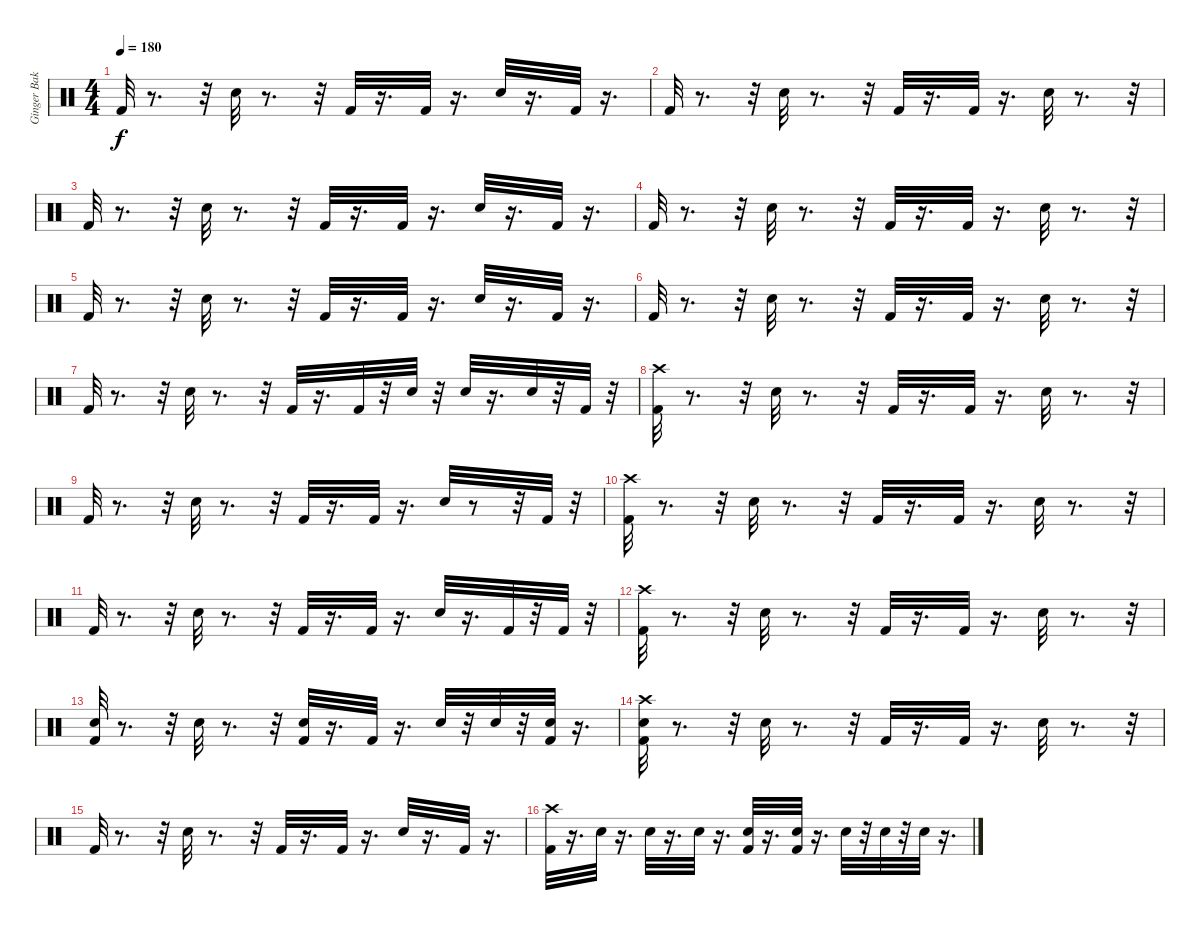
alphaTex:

\track ("Ginger Baker" "Ginger Bak") {instrument percussion}
\staff {score}
\articulation defaults
\ts (4 4)
\tempo 180
\clef neutral
\ks c "Kick (hit) 2".32{dy f}
r.8{d} r.32 "Snare (hit) 2".32 r.8{d} r.32 "Kick (hit) 2".32 r.16{d} "Kick (hit) 2".32 r.16{d} "Snare (hit) 2".32 r.16{d} "Kick (hit) 2".32 r.16{d} |
"Kick (hit) 2".32 r.8{d} r.32 "Snare (hit) 2".32 r.8{d} r.32 "Kick (hit) 2".32 r.16{d} "Kick (hit) 2".32 r.16{d} "Snare (hit) 2".32 r.8{d} r.32 |
"Kick (hit) 2".32 r.8{d} r.32 "Snare (hit) 2".32 r.8{d} r.32 "Kick (hit) 2".32 r.16{d} "Kick (hit) 2".32 r.16{d} "Snare (hit) 2".32 r.16{d} "Kick (hit) 2".32 r.16{d} |
"Kick (hit) 2".32 r.8{d} r.32 "Snare (hit) 2".32 r.8{d} r.32 "Kick (hit) 2".32 r.16{d} "Kick (hit) 2".32 r.16{d} "Snare (hit) 2".32 r.8{d} r.32 |
"Kick (hit) 2".32 r.8{d} r.32 "Snare (hit) 2".32 r.8{d} r.32 "Kick (hit) 2".32 r.16{d} "Kick (hit) 2".32 r.16{d} "Snare (hit) 2".32 r.16{d} "Kick (hit) 2".32 r.16{d} |
"Kick (hit) 2".32 r.8{d} r.32 "Snare (hit) 2".32 r.8{d} r.32 "Kick (hit) 2".32 r.16{d} "Kick (hit) 2".32 r.16{d} "Snare (hit) 2".32 r.8{d} r.32 |
"Kick (hit) 2".32 r.8{d} r.32 "Snare (hit) 2".32 r.8{d} r.32 "Kick (hit) 2".32 r.16{d} "Kick (hit) 2".32 r.32 "Snare (hit) 2".32 r.32 "Snare (hit) 2".32 r.16{d} "Snare (hit) 2".32 r.32 "Kick (hit) 2".32 r.32 |
("Crash high (hit)" "Kick (hit) 2").32 r.8{d} r.32 "Snare (hit) 2".32 r.8{d} r.32 "Kick (hit) 2".32 r.16{d} "Kick (hit) 2".32 r.16{d} "Snare (hit) 2".32 r.8{d} r.32 |
"Kick (hit) 2".32 r.8{d} r.32 "Snare (hit) 2".32 r.8{d} r.32 "Kick (hit) 2".32 r.16{d} "Kick (hit) 2".32 r.16{d} "Snare (hit) 2".32 r.8 r.32 "Kick (hit) 2".32 r.32 |
("Crash high (hit)" "Kick (hit) 2").32 r.8{d} r.32 "Snare (hit) 2".32 r.8{d} r.32 "Kick (hit) 2".32 r.16{d} "Kick (hit) 2".32 r.16{d} "Snare (hit) 2".32 r.8{d} r.32 |
"Kick (hit) 2".32 r.8{d} r.32 "Snare (hit) 2".32 r.8{d} r.32 "Kick (hit) 2".32 r.16{d} "Kick (hit) 2".32 r.16{d} "Snare (hit) 2".32 r.16{d} "Kick (hit) 2".32 r.32 "Kick (hit) 2".32 r.32 |
("Crash high (hit)" "Kick (hit) 2").32 r.8{d} r.32 "Snare (hit) 2".32 r.8{d} r.32 "Kick (hit) 2".32 r.16{d} "Kick (hit) 2".32 r.16{d} "Snare (hit) 2".32 r.8{d} r.32 |
("Snare (hit) 2" "Kick (hit) 2").32 r.8{d} r.32 "Snare (hit) 2".32 r.8{d} r.32 ("Snare (hit) 2" "Kick (hit) 2").32 r.16{d} "Kick (hit) 2".32 r.16{d} "Snare (hit) 2".32 r.32 "Snare (hit) 2".32 r.32 ("Snare (hit) 2" "Kick (hit) 2").32 r.16{d} |
("Crash high (hit)" "Snare (hit) 2" "Kick (hit) 2").32 r.8{d} r.32 "Snare (hit) 2".32 r.8{d} r.32 "Kick (hit) 2".32 r.16{d} "Kick (hit) 2".32 r.16{d} "Snare (hit) 2".32 r.8{d} r.32 |
"Kick (hit) 2".32 r.8{d} r.32 "Snare (hit) 2".32 r.8{d} r.32 "Kick (hit) 2".32 r.16{d} "Kick (hit) 2".32 r.16{d} "Snare (hit) 2".32 r.16{d} "Kick (hit) 2".32 r.16{d} |
("Crash high (hit)" "Kick (hit) 2").32 r.16{d} "Snare (hit) 2".32 r.16{d} "Snare (hit) 2".32 r.16{d} "Snare (hit) 2".32 r.16{d} ("Snare (hit) 2" "Kick (hit) 2").32 r.16{d} ("Snare (hit) 2" "Kick (hit) 2").32 r.16{d} "Snare (hit) 2".32 r.32 "Snare (hit) 2".32 r.32 "Snare (hit) 2".32 r.16{d}
